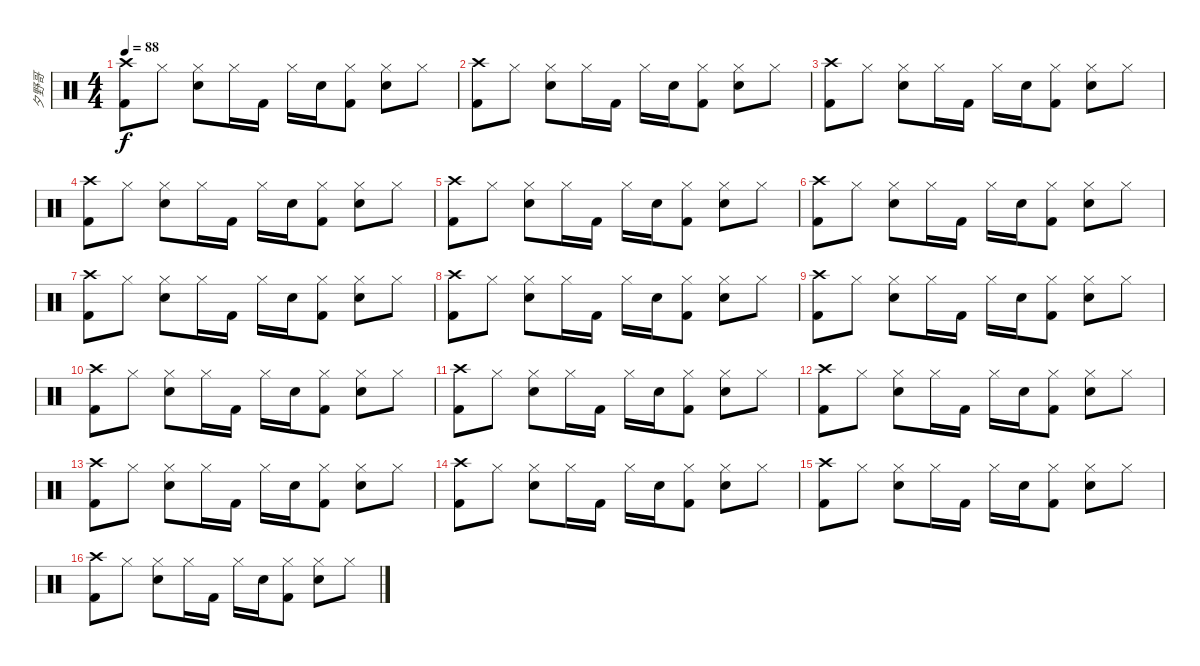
\track ("夕野哥" "夕野哥") {instrument percussion}
\staff {score}
\articulation defaults
\ts (4 4)
\tempo 88
\clef neutral
\ks c
("Crash high (hit)" "Kick (hit) 2").8{dy f} "Hi-Hat (closed)".8 ("Hi-Hat (closed)" "Electric Snare (hit)").8 "Hi-Hat (closed)".16 "Kick (hit) 2".16 "Hi-Hat (closed)".16 "Electric Snare (hit)".16 ("Hi-Hat (closed)" "Kick (hit) 2").8 ("Hi-Hat (closed)" "Electric Snare (hit)").8 "Hi-Hat (closed)".8 |
("Crash high (hit)" "Kick (hit) 2").8 "Hi-Hat (closed)".8 ("Hi-Hat (closed)" "Electric Snare (hit)").8 "Hi-Hat (closed)".16 "Kick (hit) 2".16 "Hi-Hat (closed)".16 "Electric Snare (hit)".16 ("Hi-Hat (closed)" "Kick (hit) 2").8 ("Hi-Hat (closed)" "Electric Snare (hit)").8 "Hi-Hat (closed)".8 |
("Crash high (hit)" "Kick (hit) 2").8 "Hi-Hat (closed)".8 ("Hi-Hat (closed)" "Electric Snare (hit)").8 "Hi-Hat (closed)".16 "Kick (hit) 2".16 "Hi-Hat (closed)".16 "Electric Snare (hit)".16 ("Hi-Hat (closed)" "Kick (hit) 2").8 ("Hi-Hat (closed)" "Electric Snare (hit)").8 "Hi-Hat (closed)".8 |
("Crash high (hit)" "Kick (hit) 2").8 "Hi-Hat (closed)".8 ("Hi-Hat (closed)" "Electric Snare (hit)").8 "Hi-Hat (closed)".16 "Kick (hit) 2".16 "Hi-Hat (closed)".16 "Electric Snare (hit)".16 ("Hi-Hat (closed)" "Kick (hit) 2").8 ("Hi-Hat (closed)" "Electric Snare (hit)").8 "Hi-Hat (closed)".8 |
("Crash high (hit)" "Kick (hit) 2").8 "Hi-Hat (closed)".8 ("Hi-Hat (closed)" "Electric Snare (hit)").8 "Hi-Hat (closed)".16 "Kick (hit) 2".16 "Hi-Hat (closed)".16 "Electric Snare (hit)".16 ("Hi-Hat (closed)" "Kick (hit) 2").8 ("Hi-Hat (closed)" "Electric Snare (hit)").8 "Hi-Hat (closed)".8 |
("Crash high (hit)" "Kick (hit) 2").8 "Hi-Hat (closed)".8 ("Hi-Hat (closed)" "Electric Snare (hit)").8 "Hi-Hat (closed)".16 "Kick (hit) 2".16 "Hi-Hat (closed)".16 "Electric Snare (hit)".16 ("Hi-Hat (closed)" "Kick (hit) 2").8 ("Hi-Hat (closed)" "Electric Snare (hit)").8 "Hi-Hat (closed)".8 |
("Crash high (hit)" "Kick (hit) 2").8 "Hi-Hat (closed)".8 ("Hi-Hat (closed)" "Electric Snare (hit)").8 "Hi-Hat (closed)".16 "Kick (hit) 2".16 "Hi-Hat (closed)".16 "Electric Snare (hit)".16 ("Hi-Hat (closed)" "Kick (hit) 2").8 ("Hi-Hat (closed)" "Electric Snare (hit)").8 "Hi-Hat (closed)".8 |
("Crash high (hit)" "Kick (hit) 2").8 "Hi-Hat (closed)".8 ("Hi-Hat (closed)" "Electric Snare (hit)").8 "Hi-Hat (closed)".16 "Kick (hit) 2".16 "Hi-Hat (closed)".16 "Electric Snare (hit)".16 ("Hi-Hat (closed)" "Kick (hit) 2").8 ("Hi-Hat (closed)" "Electric Snare (hit)").8 "Hi-Hat (closed)".8 |
("Crash high (hit)" "Kick (hit) 2").8 "Hi-Hat (closed)".8 ("Hi-Hat (closed)" "Electric Snare (hit)").8 "Hi-Hat (closed)".16 "Kick (hit) 2".16 "Hi-Hat (closed)".16 "Electric Snare (hit)".16 ("Hi-Hat (closed)" "Kick (hit) 2").8 ("Hi-Hat (closed)" "Electric Snare (hit)").8 "Hi-Hat (closed)".8 |
("Crash high (hit)" "Kick (hit) 2").8 "Hi-Hat (closed)".8 ("Hi-Hat (closed)" "Electric Snare (hit)").8 "Hi-Hat (closed)".16 "Kick (hit) 2".16 "Hi-Hat (closed)".16 "Electric Snare (hit)".16 ("Hi-Hat (closed)" "Kick (hit) 2").8 ("Hi-Hat (closed)" "Electric Snare (hit)").8 "Hi-Hat (closed)".8 |
("Crash high (hit)" "Kick (hit) 2").8 "Hi-Hat (closed)".8 ("Hi-Hat (closed)" "Electric Snare (hit)").8 "Hi-Hat (closed)".16 "Kick (hit) 2".16 "Hi-Hat (closed)".16 "Electric Snare (hit)".16 ("Hi-Hat (closed)" "Kick (hit) 2").8 ("Hi-Hat (closed)" "Electric Snare (hit)").8 "Hi-Hat (closed)".8 |
("Crash high (hit)" "Kick (hit) 2").8 "Hi-Hat (closed)".8 ("Hi-Hat (closed)" "Electric Snare (hit)").8 "Hi-Hat (closed)".16 "Kick (hit) 2".16 "Hi-Hat (closed)".16 "Electric Snare (hit)".16 ("Hi-Hat (closed)" "Kick (hit) 2").8 ("Hi-Hat (closed)" "Electric Snare (hit)").8 "Hi-Hat (closed)".8 |
("Crash high (hit)" "Kick (hit) 2").8 "Hi-Hat (closed)".8 ("Hi-Hat (closed)" "Electric Snare (hit)").8 "Hi-Hat (closed)".16 "Kick (hit) 2".16 "Hi-Hat (closed)".16 "Electric Snare (hit)".16 ("Hi-Hat (closed)" "Kick (hit) 2").8 ("Hi-Hat (closed)" "Electric Snare (hit)").8 "Hi-Hat (closed)".8 |
("Crash high (hit)" "Kick (hit) 2").8 "Hi-Hat (closed)".8 ("Hi-Hat (closed)" "Electric Snare (hit)").8 "Hi-Hat (closed)".16 "Kick (hit) 2".16 "Hi-Hat (closed)".16 "Electric Snare (hit)".16 ("Hi-Hat (closed)" "Kick (hit) 2").8 ("Hi-Hat (closed)" "Electric Snare (hit)").8 "Hi-Hat (closed)".8 |
("Crash high (hit)" "Kick (hit) 2").8 "Hi-Hat (closed)".8 ("Hi-Hat (closed)" "Electric Snare (hit)").8 "Hi-Hat (closed)".16 "Kick (hit) 2".16 "Hi-Hat (closed)".16 "Electric Snare (hit)".16 ("Hi-Hat (closed)" "Kick (hit) 2").8 ("Hi-Hat (closed)" "Electric Snare (hit)").8 "Hi-Hat (closed)".8 |
("Crash high (hit)" "Kick (hit) 2").8 "Hi-Hat (closed)".8 ("Hi-Hat (closed)" "Electric Snare (hit)").8 "Hi-Hat (closed)".16 "Kick (hit) 2".16 "Hi-Hat (closed)".16 "Electric Snare (hit)".16 ("Hi-Hat (closed)" "Kick (hit) 2").8 ("Hi-Hat (closed)" "Electric Snare (hit)").8 "Hi-Hat (closed)".8
